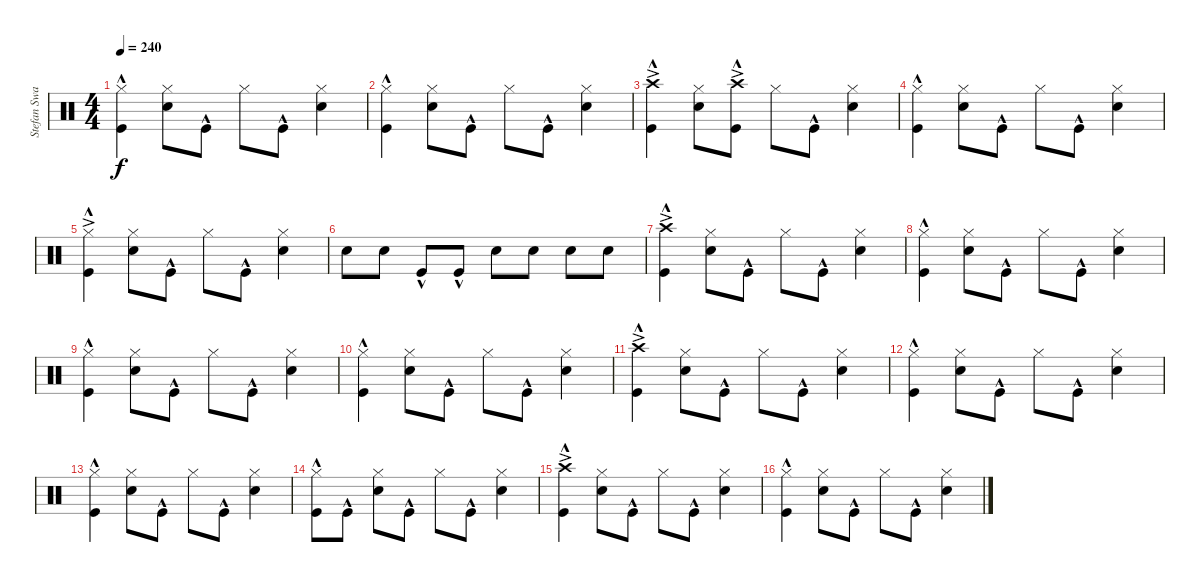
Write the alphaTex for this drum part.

\track ("Stefan Swarztmann" "Stefan Swa") {instrument percussion}
\staff {score}
\articulation defaults
\ts (4 4)
\tempo 240
\clef neutral
\ks c
("Hi-Hat (closed)" "Kick (hit)"{hac}).4{dy f} ("Hi-Hat (closed)" "Snare (hit) 2").8 "Kick (hit)"{hac}.8 "Hi-Hat (closed)".8 "Kick (hit)"{hac}.8 ("Hi-Hat (closed)" "Snare (hit) 2").4 |
("Hi-Hat (closed)" "Kick (hit)"{hac}).4 ("Hi-Hat (closed)" "Snare (hit) 2").8 "Kick (hit)"{hac}.8 "Hi-Hat (closed)".8 "Kick (hit)"{hac}.8 ("Hi-Hat (closed)" "Snare (hit) 2").4 |
("Crash high (hit)"{ac} "Kick (hit)"{hac}).4 ("Hi-Hat (closed)" "Snare (hit) 2").8 ("Crash high (hit)"{ac} "Kick (hit)"{hac}).8 "Hi-Hat (closed)".8 "Kick (hit)"{hac}.8 ("Hi-Hat (closed)" "Snare (hit) 2").4 |
("Hi-Hat (closed)" "Kick (hit)"{hac}).4 ("Hi-Hat (closed)" "Snare (hit) 2").8 "Kick (hit)"{hac}.8 "Hi-Hat (closed)".8 "Kick (hit)"{hac}.8 ("Hi-Hat (closed)" "Snare (hit) 2").4 |
("Hi-Hat (closed)"{ac} "Kick (hit)"{hac}).4 ("Hi-Hat (closed)" "Snare (hit) 2").8 "Kick (hit)"{hac}.8 "Hi-Hat (closed)".8 "Kick (hit)"{hac}.8 ("Hi-Hat (closed)" "Snare (hit) 2").4 |
"Snare (hit) 2".8 "Snare (hit) 2".8 "Kick (hit)"{hac}.8 "Kick (hit)"{hac}.8 "Snare (hit) 2".8 "Snare (hit) 2".8 "Snare (hit) 2".8 "Snare (hit) 2".8 |
("Crash high (hit)"{ac} "Kick (hit)"{hac}).4 ("Hi-Hat (closed)" "Snare (hit) 2").8 "Kick (hit)"{hac}.8 "Hi-Hat (closed)".8 "Kick (hit)"{hac}.8 ("Hi-Hat (closed)" "Snare (hit) 2").4 |
("Hi-Hat (closed)" "Kick (hit)"{hac}).4 ("Hi-Hat (closed)" "Snare (hit) 2").8 "Kick (hit)"{hac}.8 "Hi-Hat (closed)".8 "Kick (hit)"{hac}.8 ("Hi-Hat (closed)" "Snare (hit) 2").4 |
("Hi-Hat (closed)" "Kick (hit)"{hac}).4 ("Hi-Hat (closed)" "Snare (hit) 2").8 "Kick (hit)"{hac}.8 "Hi-Hat (closed)".8 "Kick (hit)"{hac}.8 ("Hi-Hat (closed)" "Snare (hit) 2").4 |
("Hi-Hat (closed)" "Kick (hit)"{hac}).4 ("Hi-Hat (closed)" "Snare (hit) 2").8 "Kick (hit)"{hac}.8 "Hi-Hat (closed)".8 "Kick (hit)"{hac}.8 ("Hi-Hat (closed)" "Snare (hit) 2").4 |
("Crash high (hit)"{ac} "Kick (hit)"{hac}).4 ("Hi-Hat (closed)" "Snare (hit) 2").8 "Kick (hit)"{hac}.8 "Hi-Hat (closed)".8 "Kick (hit)"{hac}.8 ("Hi-Hat (closed)" "Snare (hit) 2").4 |
("Hi-Hat (closed)" "Kick (hit)"{hac}).4 ("Hi-Hat (closed)" "Snare (hit) 2").8 "Kick (hit)"{hac}.8 "Hi-Hat (closed)".8 "Kick (hit)"{hac}.8 ("Hi-Hat (closed)" "Snare (hit) 2").4 |
("Hi-Hat (closed)" "Kick (hit)"{hac}).4 ("Hi-Hat (closed)" "Snare (hit) 2").8 "Kick (hit)"{hac}.8 "Hi-Hat (closed)".8 "Kick (hit)"{hac}.8 ("Hi-Hat (closed)" "Snare (hit) 2").4 |
("Hi-Hat (closed)" "Kick (hit)"{hac}).8 "Kick (hit)"{hac}.8 ("Hi-Hat (closed)" "Snare (hit) 2").8 "Kick (hit)"{hac}.8 "Hi-Hat (closed)".8 "Kick (hit)"{hac}.8 ("Hi-Hat (closed)" "Snare (hit) 2").4 |
("Crash high (hit)"{ac} "Kick (hit)"{hac}).4 ("Hi-Hat (closed)" "Snare (hit) 2").8 "Kick (hit)"{hac}.8 "Hi-Hat (closed)".8 "Kick (hit)"{hac}.8 ("Hi-Hat (closed)" "Snare (hit) 2").4 |
("Hi-Hat (closed)" "Kick (hit)"{hac}).4 ("Hi-Hat (closed)" "Snare (hit) 2").8 "Kick (hit)"{hac}.8 "Hi-Hat (closed)".8 "Kick (hit)"{hac}.8 ("Hi-Hat (closed)" "Snare (hit) 2").4
